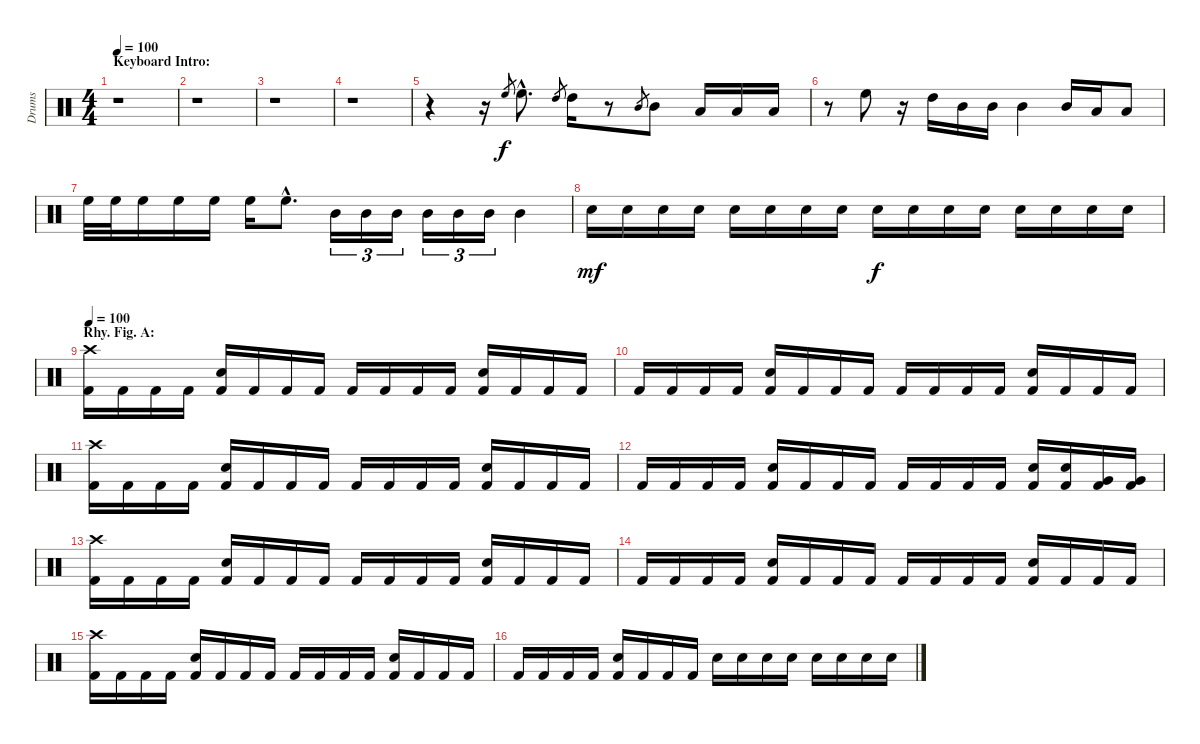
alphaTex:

\track ("Drums" "Drums") {instrument percussion}
\staff {score}
\articulation defaults
\ts (4 4)
\section ("" "Keyboard Intro:")
\tempo 100
\clef neutral
\ks c
r.1{dy f} |
r.1 |
r.1 |
r.1 |
r.4 r.16 "High Floor Tom (hit)".8{gr} "High Floor Tom (hit)"{hac}.8{d} "High Tom (hit)".8{gr} "High Tom (hit)".16 r.8 "Mid Tom (hit)".8{gr} "Mid Tom (hit)".8 "Low Tom (hit)".16 "Low Tom (hit)".16 "Low Tom (hit)".16 |
r.8 "High Floor Tom (hit)".8 r.16 "High Tom (hit)".16 "Mid Tom (hit)".16 "Mid Tom (hit)".16 "Mid Tom (hit)".4 "Mid Tom (hit)".16 "Low Tom (hit)".16 "Low Tom (hit)".8 |
"High Floor Tom (hit)".32 "High Floor Tom (hit)".32 "High Floor Tom (hit)".16 "High Floor Tom (hit)".16 "High Floor Tom (hit)".16 "High Floor Tom (hit)".16 "High Floor Tom (hit)"{hac}.8{d} "Mid Tom (hit)".16{tu (3 2)} "Mid Tom (hit)".16{tu (3 2)} "Mid Tom (hit)".16{tu (3 2)} "Mid Tom (hit)".16{tu (3 2)} "Mid Tom (hit)".16{tu (3 2)} "Mid Tom (hit)".16{tu (3 2)} "Mid Tom (hit)".4 |
"Electric Snare (hit)".16{dy mf} "Electric Snare (hit)".16 "Electric Snare (hit)".16 "Electric Snare (hit)".16 "Electric Snare (hit)".16 "Electric Snare (hit)".16 "Electric Snare (hit)".16 "Electric Snare (hit)".16 "Electric Snare (hit)".16{dy f} "Electric Snare (hit)".16 "Electric Snare (hit)".16 "Electric Snare (hit)".16 "Electric Snare (hit)".16 "Electric Snare (hit)".16 "Electric Snare (hit)".16 "Electric Snare (hit)".16 |
\section ("" "Rhy. Fig. A:")
\tempo 100
("Crash high (hit)" "Kick (hit) 2").16 "Kick (hit) 2".16 "Kick (hit) 2".16 "Kick (hit) 2".16 ("Electric Snare (hit)" "Kick (hit) 2").16 "Kick (hit) 2".16 "Kick (hit) 2".16 "Kick (hit) 2".16 "Kick (hit) 2".16 "Kick (hit) 2".16 "Kick (hit) 2".16 "Kick (hit) 2".16 ("Electric Snare (hit)" "Kick (hit) 2").16 "Kick (hit) 2".16 "Kick (hit) 2".16 "Kick (hit) 2".16 |
"Kick (hit) 2".16 "Kick (hit) 2".16 "Kick (hit) 2".16 "Kick (hit) 2".16 ("Electric Snare (hit)" "Kick (hit) 2").16 "Kick (hit) 2".16 "Kick (hit) 2".16 "Kick (hit) 2".16 "Kick (hit) 2".16 "Kick (hit) 2".16 "Kick (hit) 2".16 "Kick (hit) 2".16 ("Electric Snare (hit)" "Kick (hit) 2").16 "Kick (hit) 2".16 "Kick (hit) 2".16 "Kick (hit) 2".16 |
("Crash high (hit)" "Kick (hit) 2").16 "Kick (hit) 2".16 "Kick (hit) 2".16 "Kick (hit) 2".16 ("Electric Snare (hit)" "Kick (hit) 2").16 "Kick (hit) 2".16 "Kick (hit) 2".16 "Kick (hit) 2".16 "Kick (hit) 2".16 "Kick (hit) 2".16 "Kick (hit) 2".16 "Kick (hit) 2".16 ("Electric Snare (hit)" "Kick (hit) 2").16 "Kick (hit) 2".16 "Kick (hit) 2".16 "Kick (hit) 2".16 |
"Kick (hit) 2".16 "Kick (hit) 2".16 "Kick (hit) 2".16 "Kick (hit) 2".16 ("Electric Snare (hit)" "Kick (hit) 2").16 "Kick (hit) 2".16 "Kick (hit) 2".16 "Kick (hit) 2".16 "Kick (hit) 2".16 "Kick (hit) 2".16 "Kick (hit) 2".16 "Kick (hit) 2".16 ("Electric Snare (hit)" "Kick (hit) 2").16 ("Electric Snare (hit)" "Kick (hit) 2").16 ("Very Low Tom (hit)" "Kick (hit) 2").16 ("Very Low Tom (hit)" "Kick (hit) 2").16 |
("Crash high (hit)" "Kick (hit) 2").16 "Kick (hit) 2".16 "Kick (hit) 2".16 "Kick (hit) 2".16 ("Electric Snare (hit)" "Kick (hit) 2").16 "Kick (hit) 2".16 "Kick (hit) 2".16 "Kick (hit) 2".16 "Kick (hit) 2".16 "Kick (hit) 2".16 "Kick (hit) 2".16 "Kick (hit) 2".16 ("Electric Snare (hit)" "Kick (hit) 2").16 "Kick (hit) 2".16 "Kick (hit) 2".16 "Kick (hit) 2".16 |
"Kick (hit) 2".16 "Kick (hit) 2".16 "Kick (hit) 2".16 "Kick (hit) 2".16 ("Electric Snare (hit)" "Kick (hit) 2").16 "Kick (hit) 2".16 "Kick (hit) 2".16 "Kick (hit) 2".16 "Kick (hit) 2".16 "Kick (hit) 2".16 "Kick (hit) 2".16 "Kick (hit) 2".16 ("Electric Snare (hit)" "Kick (hit) 2").16 "Kick (hit) 2".16 "Kick (hit) 2".16 "Kick (hit) 2".16 |
("Crash high (hit)" "Kick (hit) 2").16 "Kick (hit) 2".16 "Kick (hit) 2".16 "Kick (hit) 2".16 ("Electric Snare (hit)" "Kick (hit) 2").16 "Kick (hit) 2".16 "Kick (hit) 2".16 "Kick (hit) 2".16 "Kick (hit) 2".16 "Kick (hit) 2".16 "Kick (hit) 2".16 "Kick (hit) 2".16 ("Electric Snare (hit)" "Kick (hit) 2").16 "Kick (hit) 2".16 "Kick (hit) 2".16 "Kick (hit) 2".16 |
"Kick (hit) 2".16 "Kick (hit) 2".16 "Kick (hit) 2".16 "Kick (hit) 2".16 ("Electric Snare (hit)" "Kick (hit) 2").16 "Kick (hit) 2".16 "Kick (hit) 2".16 "Kick (hit) 2".16 "Electric Snare (hit)".16 "Electric Snare (hit)".16 "Electric Snare (hit)".16 "Electric Snare (hit)".16 "Electric Snare (hit)".16 "Electric Snare (hit)".16 "Electric Snare (hit)".16 "Electric Snare (hit)".16
